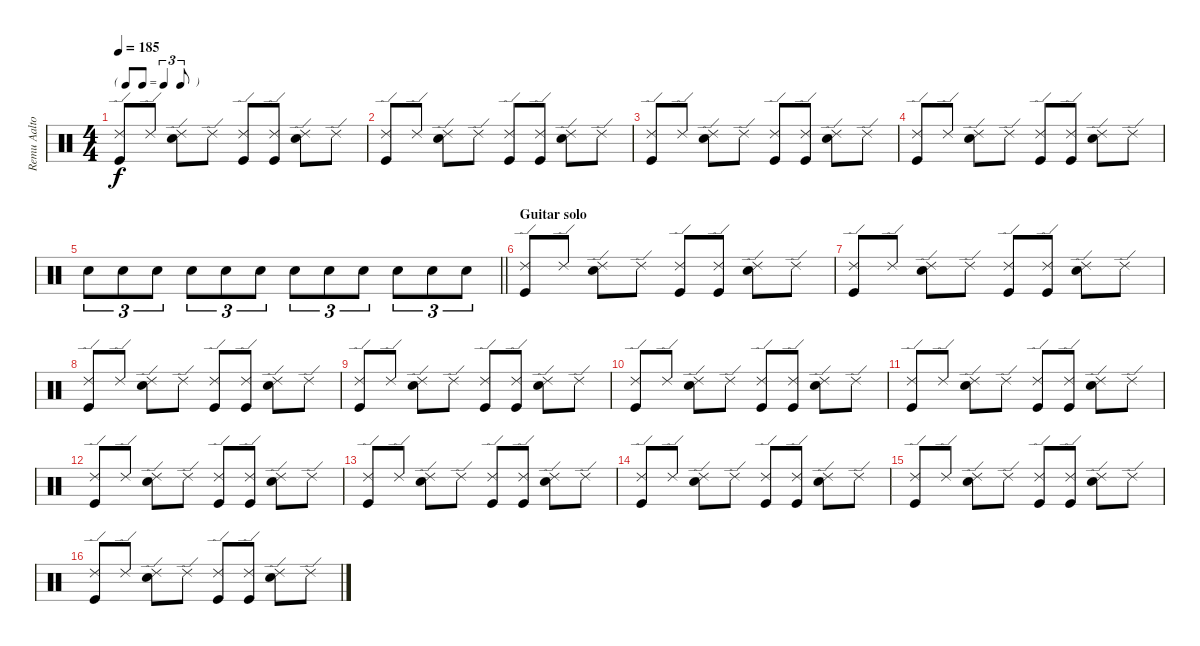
\track ("Remu Aaltonen" "Remu Aalto") {instrument percussion}
\staff {score}
\articulation defaults
\ts (4 4)
\tf triplet8th
\tempo 185
\clef neutral
\ks c
("Ride (edge) 2" "Kick (hit)").8{dy f} "Ride (edge) 2".8 ("Ride (edge) 2" "Snare (hit) 2").8 "Ride (edge) 2".8 ("Ride (edge) 2" "Kick (hit)").8 ("Ride (edge) 2" "Kick (hit)").8 ("Ride (edge) 2" "Snare (hit) 2").8 "Ride (edge) 2".8 |
("Ride (edge) 2" "Kick (hit)").8 "Ride (edge) 2".8 ("Ride (edge) 2" "Snare (hit) 2").8 "Ride (edge) 2".8 ("Ride (edge) 2" "Kick (hit)").8 ("Ride (edge) 2" "Kick (hit)").8 ("Ride (edge) 2" "Snare (hit) 2").8 "Ride (edge) 2".8 |
("Ride (edge) 2" "Kick (hit)").8 "Ride (edge) 2".8 ("Ride (edge) 2" "Snare (hit) 2").8 "Ride (edge) 2".8 ("Ride (edge) 2" "Kick (hit)").8 ("Ride (edge) 2" "Kick (hit)").8 ("Ride (edge) 2" "Snare (hit) 2").8 "Ride (edge) 2".8 |
("Ride (edge) 2" "Kick (hit)").8 "Ride (edge) 2".8 ("Ride (edge) 2" "Snare (hit) 2").8 "Ride (edge) 2".8 ("Ride (edge) 2" "Kick (hit)").8 ("Ride (edge) 2" "Kick (hit)").8 ("Ride (edge) 2" "Snare (hit) 2").8 "Ride (edge) 2".8 |
\barLineRight lightlight "Snare (hit) 2".8{tu (3 2)} "Snare (hit) 2".8{tu (3 2)} "Snare (hit) 2".8{tu (3 2)} "Snare (hit) 2".8{tu (3 2)} "Snare (hit) 2".8{tu (3 2)} "Snare (hit) 2".8{tu (3 2)} "Snare (hit) 2".8{tu (3 2)} "Snare (hit) 2".8{tu (3 2)} "Snare (hit) 2".8{tu (3 2)} "Snare (hit) 2".8{tu (3 2)} "Snare (hit) 2".8{tu (3 2)} "Snare (hit) 2".8{tu (3 2)}
|
\section ("" "Guitar solo")
("Ride (edge) 2" "Kick (hit)").8 "Ride (edge) 2".8 ("Ride (edge) 2" "Snare (hit) 2").8 "Ride (edge) 2".8 ("Ride (edge) 2" "Kick (hit)").8 ("Ride (edge) 2" "Kick (hit)").8 ("Ride (edge) 2" "Snare (hit) 2").8 "Ride (edge) 2".8 |
("Ride (edge) 2" "Kick (hit)").8 "Ride (edge) 2".8 ("Ride (edge) 2" "Snare (hit) 2").8 "Ride (edge) 2".8 ("Ride (edge) 2" "Kick (hit)").8 ("Ride (edge) 2" "Kick (hit)").8 ("Ride (edge) 2" "Snare (hit) 2").8 "Ride (edge) 2".8 |
("Ride (edge) 2" "Kick (hit)").8 "Ride (edge) 2".8 ("Ride (edge) 2" "Snare (hit) 2").8 "Ride (edge) 2".8 ("Ride (edge) 2" "Kick (hit)").8 ("Ride (edge) 2" "Kick (hit)").8 ("Ride (edge) 2" "Snare (hit) 2").8 "Ride (edge) 2".8 |
("Ride (edge) 2" "Kick (hit)").8 "Ride (edge) 2".8 ("Ride (edge) 2" "Snare (hit) 2").8 "Ride (edge) 2".8 ("Ride (edge) 2" "Kick (hit)").8 ("Ride (edge) 2" "Kick (hit)").8 ("Ride (edge) 2" "Snare (hit) 2").8 "Ride (edge) 2".8 |
("Ride (edge) 2" "Kick (hit)").8 "Ride (edge) 2".8 ("Ride (edge) 2" "Snare (hit) 2").8 "Ride (edge) 2".8 ("Ride (edge) 2" "Kick (hit)").8 ("Ride (edge) 2" "Kick (hit)").8 ("Ride (edge) 2" "Snare (hit) 2").8 "Ride (edge) 2".8 |
("Ride (edge) 2" "Kick (hit)").8 "Ride (edge) 2".8 ("Ride (edge) 2" "Snare (hit) 2").8 "Ride (edge) 2".8 ("Ride (edge) 2" "Kick (hit)").8 ("Ride (edge) 2" "Kick (hit)").8 ("Ride (edge) 2" "Snare (hit) 2").8 "Ride (edge) 2".8 |
("Ride (edge) 2" "Kick (hit)").8 "Ride (edge) 2".8 ("Ride (edge) 2" "Snare (hit) 2").8 "Ride (edge) 2".8 ("Ride (edge) 2" "Kick (hit)").8 ("Ride (edge) 2" "Kick (hit)").8 ("Ride (edge) 2" "Snare (hit) 2").8 "Ride (edge) 2".8 |
("Ride (edge) 2" "Kick (hit)").8 "Ride (edge) 2".8 ("Ride (edge) 2" "Snare (hit) 2").8 "Ride (edge) 2".8 ("Ride (edge) 2" "Kick (hit)").8 ("Ride (edge) 2" "Kick (hit)").8 ("Ride (edge) 2" "Snare (hit) 2").8 "Ride (edge) 2".8 |
("Ride (edge) 2" "Kick (hit)").8 "Ride (edge) 2".8 ("Ride (edge) 2" "Snare (hit) 2").8 "Ride (edge) 2".8 ("Ride (edge) 2" "Kick (hit)").8 ("Ride (edge) 2" "Kick (hit)").8 ("Ride (edge) 2" "Snare (hit) 2").8 "Ride (edge) 2".8 |
("Ride (edge) 2" "Kick (hit)").8 "Ride (edge) 2".8 ("Ride (edge) 2" "Snare (hit) 2").8 "Ride (edge) 2".8 ("Ride (edge) 2" "Kick (hit)").8 ("Ride (edge) 2" "Kick (hit)").8 ("Ride (edge) 2" "Snare (hit) 2").8 "Ride (edge) 2".8 |
("Ride (edge) 2" "Kick (hit)").8 "Ride (edge) 2".8 ("Ride (edge) 2" "Snare (hit) 2").8 "Ride (edge) 2".8 ("Ride (edge) 2" "Kick (hit)").8 ("Ride (edge) 2" "Kick (hit)").8 ("Ride (edge) 2" "Snare (hit) 2").8 "Ride (edge) 2".8
